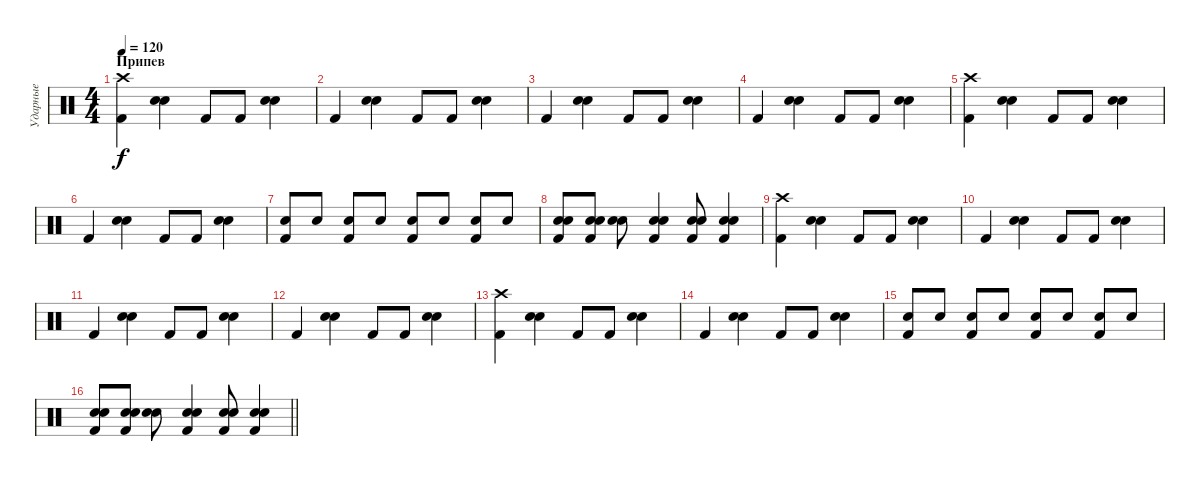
\track ("Ударные" "Ударные") {instrument percussion}
\staff {score}
\articulation defaults
\ts (4 4)
\section ("" "Припев")
\tempo 120
\clef neutral
\ks c
("Kick (hit) 2" "Crash high (hit)").4{dy f} ("Snare (hit) 2" "Electric Snare (hit)").4 "Kick (hit) 2".8 "Kick (hit) 2".8 ("Snare (hit) 2" "Electric Snare (hit)").4 |
"Kick (hit) 2".4 ("Snare (hit) 2" "Electric Snare (hit)").4 "Kick (hit) 2".8 "Kick (hit) 2".8 ("Snare (hit) 2" "Electric Snare (hit)").4 |
"Kick (hit) 2".4 ("Snare (hit) 2" "Electric Snare (hit)").4 "Kick (hit) 2".8 "Kick (hit) 2".8 ("Snare (hit) 2" "Electric Snare (hit)").4 |
"Kick (hit) 2".4 ("Snare (hit) 2" "Electric Snare (hit)").4 "Kick (hit) 2".8 "Kick (hit) 2".8 ("Snare (hit) 2" "Electric Snare (hit)").4 |
("Kick (hit) 2" "Crash high (hit)").4 ("Snare (hit) 2" "Electric Snare (hit)").4 "Kick (hit) 2".8 "Kick (hit) 2".8 ("Snare (hit) 2" "Electric Snare (hit)").4 |
"Kick (hit) 2".4 ("Snare (hit) 2" "Electric Snare (hit)").4 "Kick (hit) 2".8 "Kick (hit) 2".8 ("Snare (hit) 2" "Electric Snare (hit)").4 |
("Snare (hit) 2" "Kick (hit) 2").8 "Electric Snare (hit)".8 ("Snare (hit) 2" "Kick (hit) 2").8 "Electric Snare (hit)".8 ("Snare (hit) 2" "Kick (hit) 2").8 "Electric Snare (hit)".8 ("Snare (hit) 2" "Kick (hit) 2").8 "Electric Snare (hit)".8 |
("Kick (hit) 2" "Snare (hit) 2" "Electric Snare (hit)").8 ("Kick (hit) 2" "Snare (hit) 2" "Electric Snare (hit)").8 ("Snare (hit) 2" "Electric Snare (hit)").8 ("Kick (hit) 2" "Snare (hit) 2" "Electric Snare (hit)").4 ("Kick (hit) 2" "Snare (hit) 2" "Electric Snare (hit)").8 ("Kick (hit) 2" "Snare (hit) 2" "Electric Snare (hit)").4 |
("Kick (hit) 2" "Crash high (hit)").4 ("Snare (hit) 2" "Electric Snare (hit)").4 "Kick (hit) 2".8 "Kick (hit) 2".8 ("Snare (hit) 2" "Electric Snare (hit)").4 |
"Kick (hit) 2".4 ("Snare (hit) 2" "Electric Snare (hit)").4 "Kick (hit) 2".8 "Kick (hit) 2".8 ("Snare (hit) 2" "Electric Snare (hit)").4 |
"Kick (hit) 2".4 ("Snare (hit) 2" "Electric Snare (hit)").4 "Kick (hit) 2".8 "Kick (hit) 2".8 ("Snare (hit) 2" "Electric Snare (hit)").4 |
"Kick (hit) 2".4 ("Snare (hit) 2" "Electric Snare (hit)").4 "Kick (hit) 2".8 "Kick (hit) 2".8 ("Snare (hit) 2" "Electric Snare (hit)").4 |
("Kick (hit) 2" "Crash high (hit)").4 ("Snare (hit) 2" "Electric Snare (hit)").4 "Kick (hit) 2".8 "Kick (hit) 2".8 ("Snare (hit) 2" "Electric Snare (hit)").4 |
"Kick (hit) 2".4 ("Snare (hit) 2" "Electric Snare (hit)").4 "Kick (hit) 2".8 "Kick (hit) 2".8 ("Snare (hit) 2" "Electric Snare (hit)").4 |
("Snare (hit) 2" "Kick (hit) 2").8 "Electric Snare (hit)".8 ("Snare (hit) 2" "Kick (hit) 2").8 "Electric Snare (hit)".8 ("Snare (hit) 2" "Kick (hit) 2").8 "Electric Snare (hit)".8 ("Snare (hit) 2" "Kick (hit) 2").8 "Electric Snare (hit)".8 |
\barLineRight lightlight
("Kick (hit) 2" "Snare (hit) 2" "Electric Snare (hit)").8 ("Kick (hit) 2" "Snare (hit) 2" "Electric Snare (hit)").8 ("Snare (hit) 2" "Electric Snare (hit)").8 ("Kick (hit) 2" "Snare (hit) 2" "Electric Snare (hit)").4 ("Kick (hit) 2" "Snare (hit) 2" "Electric Snare (hit)").8 ("Kick (hit) 2" "Snare (hit) 2" "Electric Snare (hit)").4
